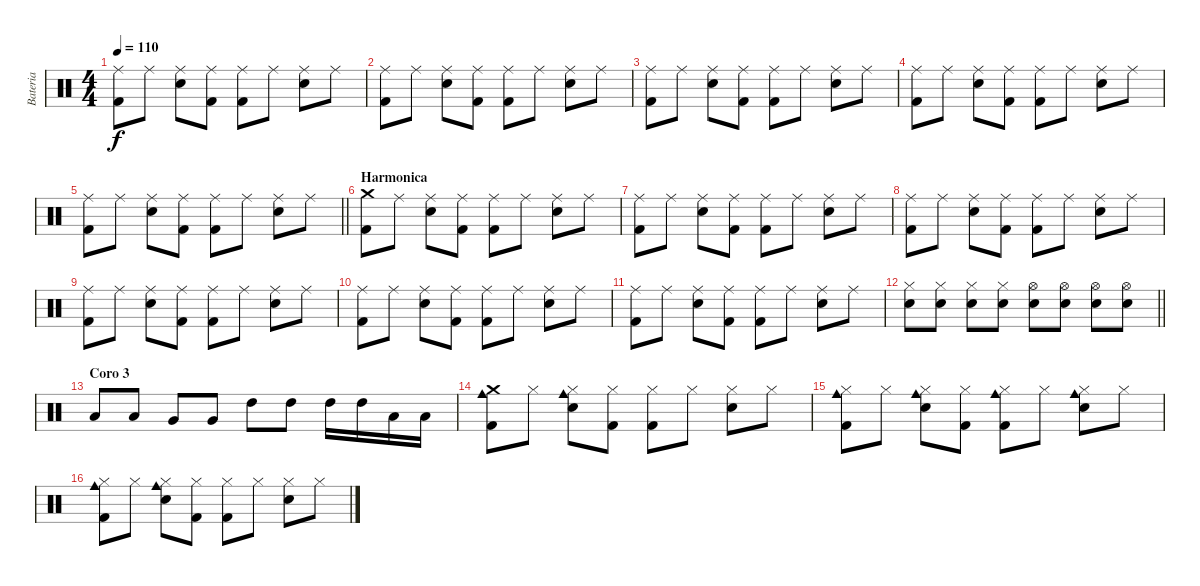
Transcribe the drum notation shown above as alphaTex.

\track ("Bateria" "Bateria") {instrument percussion}
\staff {score}
\articulation defaults
\ts (4 4)
\tempo 110
\clef neutral
\ks c
("Ride (middle)" "Kick (hit) 2").8{dy f} "Ride (middle)".8 ("Ride (middle)" "Electric Snare (hit)").8 ("Ride (middle)" "Kick (hit) 2").8 ("Ride (middle)" "Kick (hit) 2").8 "Ride (middle)".8 ("Ride (middle)" "Electric Snare (hit)").8 "Ride (middle)".8 |
("Ride (middle)" "Kick (hit) 2").8 "Ride (middle)".8 ("Ride (middle)" "Electric Snare (hit)").8 ("Ride (middle)" "Kick (hit) 2").8 ("Ride (middle)" "Kick (hit) 2").8 "Ride (middle)".8 ("Ride (middle)" "Electric Snare (hit)").8 "Ride (middle)".8 |
("Ride (middle)" "Kick (hit) 2").8 "Ride (middle)".8 ("Ride (middle)" "Electric Snare (hit)").8 ("Ride (middle)" "Kick (hit) 2").8 ("Ride (middle)" "Kick (hit) 2").8 "Ride (middle)".8 ("Ride (middle)" "Electric Snare (hit)").8 "Ride (middle)".8 |
("Ride (middle)" "Kick (hit) 2").8 "Ride (middle)".8 ("Ride (middle)" "Electric Snare (hit)").8 ("Ride (middle)" "Kick (hit) 2").8 ("Ride (middle)" "Kick (hit) 2").8 "Ride (middle)".8 ("Ride (middle)" "Electric Snare (hit)").8 "Ride (middle)".8 |
\barLineRight lightlight
("Ride (middle)" "Kick (hit) 2").8 "Ride (middle)".8 ("Ride (middle)" "Electric Snare (hit)").8 ("Ride (middle)" "Kick (hit) 2").8 ("Ride (middle)" "Kick (hit) 2").8 "Ride (middle)".8 ("Ride (middle)" "Electric Snare (hit)").8 "Ride (middle)".8 |
\section ("" "Harmonica")
("Crash medium (hit)" "Kick (hit) 2").8 "Ride (middle)".8 ("Ride (middle)" "Electric Snare (hit)").8 ("Ride (middle)" "Kick (hit) 2").8 ("Ride (middle)" "Kick (hit) 2").8 "Ride (middle)".8 ("Ride (middle)" "Electric Snare (hit)").8 "Ride (middle)".8 |
("Ride (middle)" "Kick (hit) 2").8 "Ride (middle)".8 ("Ride (middle)" "Electric Snare (hit)").8 ("Ride (middle)" "Kick (hit) 2").8 ("Ride (middle)" "Kick (hit) 2").8 "Ride (middle)".8 ("Ride (middle)" "Electric Snare (hit)").8 "Ride (middle)".8 |
("Ride (middle)" "Kick (hit) 2").8 "Ride (middle)".8 ("Ride (middle)" "Electric Snare (hit)").8 ("Ride (middle)" "Kick (hit) 2").8 ("Ride (middle)" "Kick (hit) 2").8 "Ride (middle)".8 ("Ride (middle)" "Electric Snare (hit)").8 "Ride (middle)".8 |
("Ride (middle)" "Kick (hit) 2").8 "Ride (middle)".8 ("Ride (middle)" "Electric Snare (hit)").8 ("Ride (middle)" "Kick (hit) 2").8 ("Ride (middle)" "Kick (hit) 2").8 "Ride (middle)".8 ("Ride (middle)" "Electric Snare (hit)").8 "Ride (middle)".8 |
("Ride (middle)" "Kick (hit) 2").8 "Ride (middle)".8 ("Ride (middle)" "Electric Snare (hit)").8 ("Ride (middle)" "Kick (hit) 2").8 ("Ride (middle)" "Kick (hit) 2").8 "Ride (middle)".8 ("Ride (middle)" "Electric Snare (hit)").8 "Ride (middle)".8 |
("Ride (middle)" "Kick (hit) 2").8 "Ride (middle)".8 ("Ride (middle)" "Electric Snare (hit)").8 ("Ride (middle)" "Kick (hit) 2").8 ("Ride (middle)" "Kick (hit) 2").8 "Ride (middle)".8 ("Ride (middle)" "Electric Snare (hit)").8 "Ride (middle)".8 |
\barLineRight lightlight
("Hi-Hat (closed)" "Electric Snare (hit)").8 ("Hi-Hat (closed)" "Electric Snare (hit)").8 ("Hi-Hat (closed)" "Electric Snare (hit)").8 ("Hi-Hat (closed)" "Electric Snare (hit)").8 ("Hi-Hat (open)" "Electric Snare (hit)").8 ("Hi-Hat (open)" "Electric Snare (hit)").8 ("Hi-Hat (open)" "Electric Snare (hit)").8 ("Hi-Hat (open)" "Electric Snare (hit)").8 |
\section ("" "Coro 3")
"Low Tom (hit)".8 "Low Tom (hit)".8 "Very Low Tom (hit)".8 "Very Low Tom (hit)".8 "High Tom (hit)".8 "High Tom (hit)".8 "High Tom (hit)".16 "High Tom (hit)".16 "Low Tom (hit)".16 "Low Tom (hit)".16 |
("Crash medium (hit)" "Cowbell medium (hit)" "Kick (hit) 2").8 "Hi-Hat (closed)".8 ("Hi-Hat (closed)" "Electric Snare (hit)" "Cowbell medium (hit)").8 ("Hi-Hat (closed)" "Kick (hit) 2").8 ("Hi-Hat (closed)" "Kick (hit) 2").8 "Hi-Hat (closed)".8 ("Hi-Hat (closed)" "Electric Snare (hit)").8 "Hi-Hat (closed)".8 |
("Hi-Hat (closed)" "Cowbell medium (hit)" "Kick (hit) 2").8 "Hi-Hat (closed)".8 ("Hi-Hat (closed)" "Electric Snare (hit)" "Cowbell medium (hit)").8 ("Hi-Hat (closed)" "Kick (hit) 2").8 ("Hi-Hat (closed)" "Cowbell medium (hit)" "Kick (hit) 2").8 "Hi-Hat (closed)".8 ("Hi-Hat (closed)" "Electric Snare (hit)" "Cowbell medium (hit)").8 "Hi-Hat (closed)".8 |
("Hi-Hat (closed)" "Cowbell medium (hit)" "Kick (hit) 2").8 "Hi-Hat (closed)".8 ("Hi-Hat (closed)" "Electric Snare (hit)" "Cowbell medium (hit)").8 ("Hi-Hat (closed)" "Kick (hit) 2").8 ("Hi-Hat (closed)" "Kick (hit) 2").8 "Hi-Hat (closed)".8 ("Hi-Hat (closed)" "Electric Snare (hit)").8 "Hi-Hat (closed)".8
